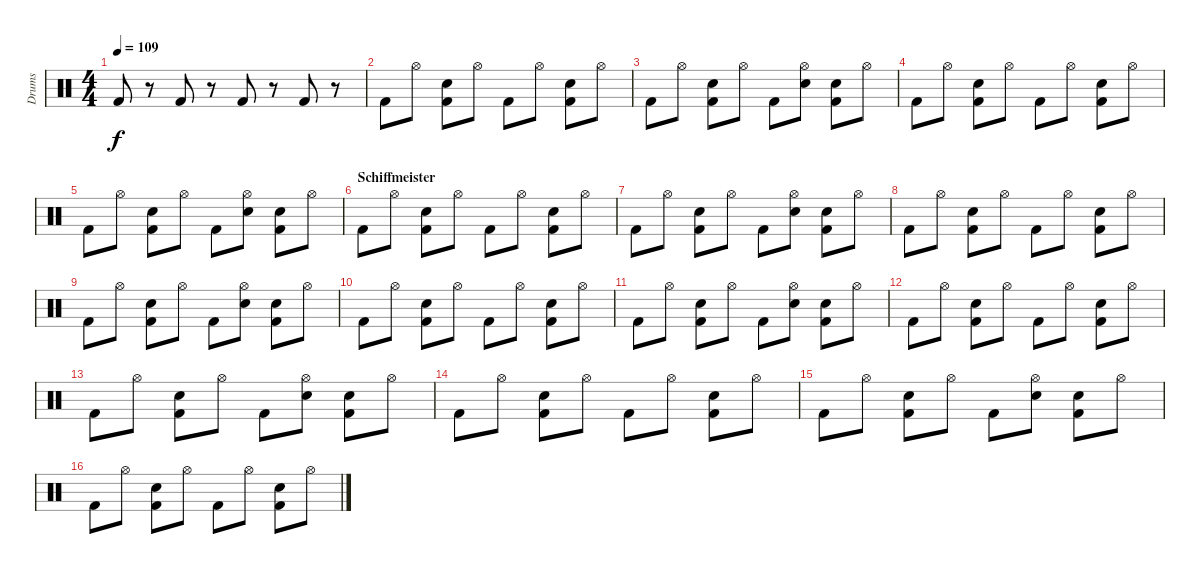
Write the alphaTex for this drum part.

\track ("Drums" "Drums") {instrument percussion}
\staff {score}
\articulation defaults
\ts (4 4)
\tempo 109
\clef neutral
\ks c "Kick (hit) 2".8{dy f}
r.8 "Kick (hit) 2".8 r.8 "Kick (hit) 2".8 r.8 "Kick (hit) 2".8 r.8 |
"Kick (hit) 2".8 "Hi-Hat (open)".8 ("Hand Clap (hit)" "Kick (hit) 2").8 "Hi-Hat (open)".8 "Kick (hit) 2".8 "Hi-Hat (open)".8 ("Hand Clap (hit)" "Kick (hit) 2").8 "Hi-Hat (open)".8 |
"Kick (hit) 2".8 "Hi-Hat (open)".8 ("Hand Clap (hit)" "Kick (hit) 2").8 "Hi-Hat (open)".8 "Kick (hit) 2".8 ("Hi-Hat (open)" "Hand Clap (hit)").8 ("Hand Clap (hit)" "Kick (hit) 2").8 "Hi-Hat (open)".8 |
"Kick (hit) 2".8 "Hi-Hat (open)".8 ("Hand Clap (hit)" "Kick (hit) 2").8 "Hi-Hat (open)".8 "Kick (hit) 2".8 "Hi-Hat (open)".8 ("Hand Clap (hit)" "Kick (hit) 2").8 "Hi-Hat (open)".8 |
"Kick (hit) 2".8 "Hi-Hat (open)".8 ("Hand Clap (hit)" "Kick (hit) 2").8 "Hi-Hat (open)".8 "Kick (hit) 2".8 ("Hi-Hat (open)" "Hand Clap (hit)").8 ("Hand Clap (hit)" "Kick (hit) 2").8 "Hi-Hat (open)".8 |
\section ("" "Schiffmeister")
"Kick (hit) 2".8 "Hi-Hat (open)".8 ("Hand Clap (hit)" "Kick (hit) 2").8 "Hi-Hat (open)".8 "Kick (hit) 2".8 "Hi-Hat (open)".8 ("Hand Clap (hit)" "Kick (hit) 2").8 "Hi-Hat (open)".8 |
"Kick (hit) 2".8 "Hi-Hat (open)".8 ("Hand Clap (hit)" "Kick (hit) 2").8 "Hi-Hat (open)".8 "Kick (hit) 2".8 ("Hi-Hat (open)" "Hand Clap (hit)").8 ("Hand Clap (hit)" "Kick (hit) 2").8 "Hi-Hat (open)".8 |
"Kick (hit) 2".8 "Hi-Hat (open)".8 ("Hand Clap (hit)" "Kick (hit) 2").8 "Hi-Hat (open)".8 "Kick (hit) 2".8 "Hi-Hat (open)".8 ("Hand Clap (hit)" "Kick (hit) 2").8 "Hi-Hat (open)".8 |
"Kick (hit) 2".8 "Hi-Hat (open)".8 ("Hand Clap (hit)" "Kick (hit) 2").8 "Hi-Hat (open)".8 "Kick (hit) 2".8 ("Hi-Hat (open)" "Hand Clap (hit)").8 ("Hand Clap (hit)" "Kick (hit) 2").8 "Hi-Hat (open)".8 |
"Kick (hit) 2".8 "Hi-Hat (open)".8 ("Hand Clap (hit)" "Kick (hit) 2").8 "Hi-Hat (open)".8 "Kick (hit) 2".8 "Hi-Hat (open)".8 ("Hand Clap (hit)" "Kick (hit) 2").8 "Hi-Hat (open)".8 |
"Kick (hit) 2".8 "Hi-Hat (open)".8 ("Hand Clap (hit)" "Kick (hit) 2").8 "Hi-Hat (open)".8 "Kick (hit) 2".8 ("Hi-Hat (open)" "Hand Clap (hit)").8 ("Hand Clap (hit)" "Kick (hit) 2").8 "Hi-Hat (open)".8 |
"Kick (hit) 2".8 "Hi-Hat (open)".8 ("Hand Clap (hit)" "Kick (hit) 2").8 "Hi-Hat (open)".8 "Kick (hit) 2".8 "Hi-Hat (open)".8 ("Hand Clap (hit)" "Kick (hit) 2").8 "Hi-Hat (open)".8 |
"Kick (hit) 2".8 "Hi-Hat (open)".8 ("Hand Clap (hit)" "Kick (hit) 2").8 "Hi-Hat (open)".8 "Kick (hit) 2".8 ("Hi-Hat (open)" "Hand Clap (hit)").8 ("Hand Clap (hit)" "Kick (hit) 2").8 "Hi-Hat (open)".8 |
"Kick (hit) 2".8 "Hi-Hat (open)".8 ("Hand Clap (hit)" "Kick (hit) 2").8 "Hi-Hat (open)".8 "Kick (hit) 2".8 "Hi-Hat (open)".8 ("Hand Clap (hit)" "Kick (hit) 2").8 "Hi-Hat (open)".8 |
"Kick (hit) 2".8 "Hi-Hat (open)".8 ("Hand Clap (hit)" "Kick (hit) 2").8 "Hi-Hat (open)".8 "Kick (hit) 2".8 ("Hi-Hat (open)" "Hand Clap (hit)").8 ("Hand Clap (hit)" "Kick (hit) 2").8 "Hi-Hat (open)".8 |
"Kick (hit) 2".8 "Hi-Hat (open)".8 ("Hand Clap (hit)" "Kick (hit) 2").8 "Hi-Hat (open)".8 "Kick (hit) 2".8 "Hi-Hat (open)".8 ("Hand Clap (hit)" "Kick (hit) 2").8 "Hi-Hat (open)".8
